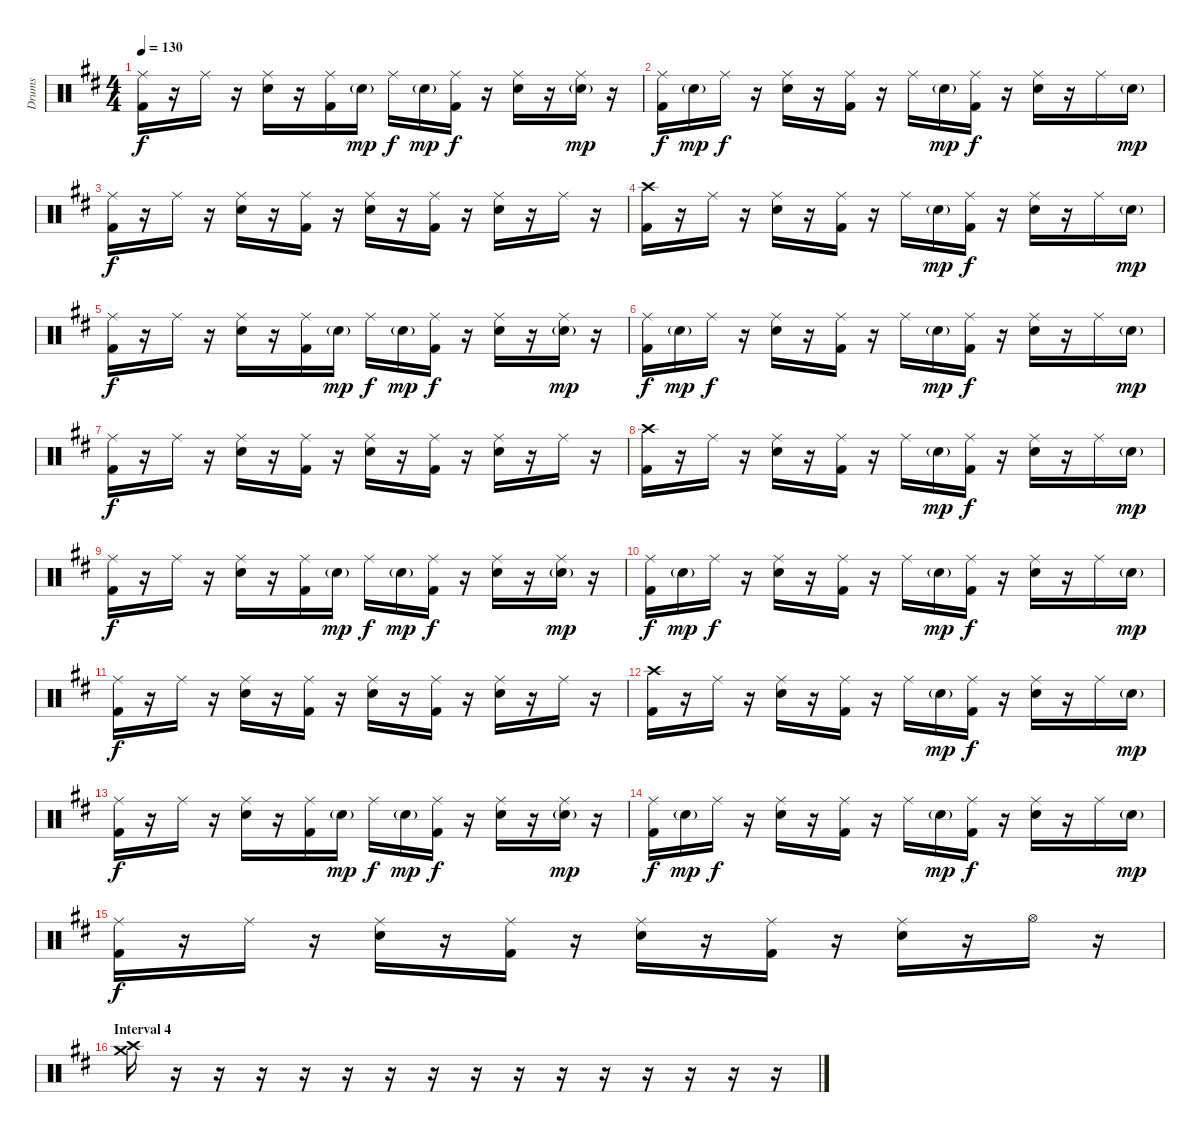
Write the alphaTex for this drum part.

\track ("Drums" "Drums") {instrument percussion}
\staff {score}
\articulation defaults
\ts (4 4)
\tempo 130
\clef neutral
\ks d
("Ride (middle)" "Kick (hit) 2").16{dy f} r.16 "Ride (middle)".16 r.16 ("Ride (middle)" "Electric Snare (hit)").16 r.16 ("Ride (middle)" "Kick (hit) 2").16 "Electric Snare (hit)"{g}.16{dy mp} "Ride (middle)".16{dy f} "Electric Snare (hit)"{g}.16{dy mp} ("Ride (middle)" "Kick (hit) 2").16{dy f} r.16 ("Ride (middle)" "Electric Snare (hit)").16 r.16 ("Ride (middle)" "Electric Snare (hit)"{g}).16{dy mp} r.16 |
("Ride (middle)" "Kick (hit) 2").16{dy f} "Electric Snare (hit)"{g}.16{dy mp} "Ride (middle)".16{dy f} r.16 ("Ride (middle)" "Electric Snare (hit)").16 r.16 ("Ride (middle)" "Kick (hit) 2").16 r.16 "Ride (middle)".16 "Electric Snare (hit)"{g}.16{dy mp} ("Ride (middle)" "Kick (hit) 2").16{dy f} r.16 ("Ride (middle)" "Electric Snare (hit)").16 r.16 "Ride (middle)".16 "Electric Snare (hit)"{g}.16{dy mp} |
("Ride (middle)" "Kick (hit) 2").16{dy f} r.16 "Ride (middle)".16 r.16 ("Ride (middle)" "Electric Snare (hit)").16 r.16 ("Ride (middle)" "Kick (hit) 2").16 r.16 ("Ride (middle)" "Electric Snare (hit)").16 r.16 ("Ride (middle)" "Kick (hit) 2").16 r.16 ("Ride (middle)" "Electric Snare (hit)").16 r.16 "Ride (middle)".16 r.16 |
("Crash high (hit)" "Kick (hit) 2").16 r.16 "Ride (middle)".16 r.16 ("Ride (middle)" "Electric Snare (hit)").16 r.16 ("Ride (middle)" "Kick (hit) 2").16 r.16 "Ride (middle)".16 "Electric Snare (hit)"{g}.16{dy mp} ("Ride (middle)" "Kick (hit) 2").16{dy f} r.16 ("Ride (middle)" "Electric Snare (hit)").16 r.16 "Ride (middle)".16 "Electric Snare (hit)"{g}.16{dy mp} |
("Ride (middle)" "Kick (hit) 2").16{dy f} r.16 "Ride (middle)".16 r.16 ("Ride (middle)" "Electric Snare (hit)").16 r.16 ("Ride (middle)" "Kick (hit) 2").16 "Electric Snare (hit)"{g}.16{dy mp} "Ride (middle)".16{dy f} "Electric Snare (hit)"{g}.16{dy mp} ("Ride (middle)" "Kick (hit) 2").16{dy f} r.16 ("Ride (middle)" "Electric Snare (hit)").16 r.16 ("Ride (middle)" "Electric Snare (hit)"{g}).16{dy mp} r.16 |
("Ride (middle)" "Kick (hit) 2").16{dy f} "Electric Snare (hit)"{g}.16{dy mp} "Ride (middle)".16{dy f} r.16 ("Ride (middle)" "Electric Snare (hit)").16 r.16 ("Ride (middle)" "Kick (hit) 2").16 r.16 "Ride (middle)".16 "Electric Snare (hit)"{g}.16{dy mp} ("Ride (middle)" "Kick (hit) 2").16{dy f} r.16 ("Ride (middle)" "Electric Snare (hit)").16 r.16 "Ride (middle)".16 "Electric Snare (hit)"{g}.16{dy mp} |
("Ride (middle)" "Kick (hit) 2").16{dy f} r.16 "Ride (middle)".16 r.16 ("Ride (middle)" "Electric Snare (hit)").16 r.16 ("Ride (middle)" "Kick (hit) 2").16 r.16 ("Ride (middle)" "Electric Snare (hit)").16 r.16 ("Ride (middle)" "Kick (hit) 2").16 r.16 ("Ride (middle)" "Electric Snare (hit)").16 r.16 "Ride (middle)".16 r.16 |
("Crash high (hit)" "Kick (hit) 2").16 r.16 "Ride (middle)".16 r.16 ("Ride (middle)" "Electric Snare (hit)").16 r.16 ("Ride (middle)" "Kick (hit) 2").16 r.16 "Ride (middle)".16 "Electric Snare (hit)"{g}.16{dy mp} ("Ride (middle)" "Kick (hit) 2").16{dy f} r.16 ("Ride (middle)" "Electric Snare (hit)").16 r.16 "Ride (middle)".16 "Electric Snare (hit)"{g}.16{dy mp} |
("Ride (middle)" "Kick (hit) 2").16{dy f} r.16 "Ride (middle)".16 r.16 ("Ride (middle)" "Electric Snare (hit)").16 r.16 ("Ride (middle)" "Kick (hit) 2").16 "Electric Snare (hit)"{g}.16{dy mp} "Ride (middle)".16{dy f} "Electric Snare (hit)"{g}.16{dy mp} ("Ride (middle)" "Kick (hit) 2").16{dy f} r.16 ("Ride (middle)" "Electric Snare (hit)").16 r.16 ("Ride (middle)" "Electric Snare (hit)"{g}).16{dy mp} r.16 |
("Ride (middle)" "Kick (hit) 2").16{dy f} "Electric Snare (hit)"{g}.16{dy mp} "Ride (middle)".16{dy f} r.16 ("Ride (middle)" "Electric Snare (hit)").16 r.16 ("Ride (middle)" "Kick (hit) 2").16 r.16 "Ride (middle)".16 "Electric Snare (hit)"{g}.16{dy mp} ("Ride (middle)" "Kick (hit) 2").16{dy f} r.16 ("Ride (middle)" "Electric Snare (hit)").16 r.16 "Ride (middle)".16 "Electric Snare (hit)"{g}.16{dy mp} |
("Ride (middle)" "Kick (hit) 2").16{dy f} r.16 "Ride (middle)".16 r.16 ("Ride (middle)" "Electric Snare (hit)").16 r.16 ("Ride (middle)" "Kick (hit) 2").16 r.16 ("Ride (middle)" "Electric Snare (hit)").16 r.16 ("Ride (middle)" "Kick (hit) 2").16 r.16 ("Ride (middle)" "Electric Snare (hit)").16 r.16 "Ride (middle)".16 r.16 |
("Crash high (hit)" "Kick (hit) 2").16 r.16 "Ride (middle)".16 r.16 ("Ride (middle)" "Electric Snare (hit)").16 r.16 ("Ride (middle)" "Kick (hit) 2").16 r.16 "Ride (middle)".16 "Electric Snare (hit)"{g}.16{dy mp} ("Ride (middle)" "Kick (hit) 2").16{dy f} r.16 ("Ride (middle)" "Electric Snare (hit)").16 r.16 "Ride (middle)".16 "Electric Snare (hit)"{g}.16{dy mp} |
("Ride (middle)" "Kick (hit) 2").16{dy f} r.16 "Ride (middle)".16 r.16 ("Ride (middle)" "Electric Snare (hit)").16 r.16 ("Ride (middle)" "Kick (hit) 2").16 "Electric Snare (hit)"{g}.16{dy mp} "Ride (middle)".16{dy f} "Electric Snare (hit)"{g}.16{dy mp} ("Ride (middle)" "Kick (hit) 2").16{dy f} r.16 ("Ride (middle)" "Electric Snare (hit)").16 r.16 ("Ride (middle)" "Electric Snare (hit)"{g}).16{dy mp} r.16 |
("Ride (middle)" "Kick (hit) 2").16{dy f} "Electric Snare (hit)"{g}.16{dy mp} "Ride (middle)".16{dy f} r.16 ("Ride (middle)" "Electric Snare (hit)").16 r.16 ("Ride (middle)" "Kick (hit) 2").16 r.16 "Ride (middle)".16 "Electric Snare (hit)"{g}.16{dy mp} ("Ride (middle)" "Kick (hit) 2").16{dy f} r.16 ("Ride (middle)" "Electric Snare (hit)").16 r.16 "Ride (middle)".16 "Electric Snare (hit)"{g}.16{dy mp} |
("Ride (middle)" "Kick (hit) 2").16{dy f} r.16 "Ride (middle)".16 r.16 ("Ride (middle)" "Electric Snare (hit)").16 r.16 ("Ride (middle)" "Kick (hit) 2").16 r.16 ("Ride (middle)" "Electric Snare (hit)").16 r.16 ("Ride (middle)" "Kick (hit) 2").16 r.16 ("Ride (middle)" "Electric Snare (hit)").16 r.16 "Hi-Hat (open)".16 r.16 |
\section ("" "Interval 4")
("Crash high (hit)" "Crash medium (hit)").16 r.16 r.16 r.16 r.16 r.16 r.16 r.16 r.16 r.16 r.16 r.16 r.16 r.16 r.16 r.16
